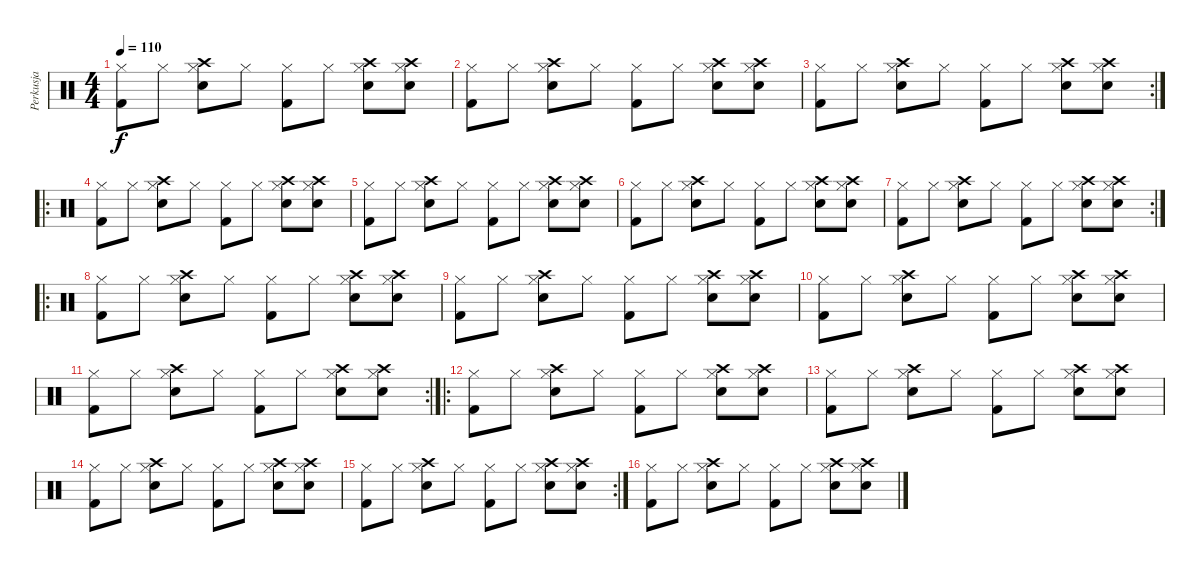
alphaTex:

\track ("Perkusja" "Perkusja") {instrument percussion}
\staff {score}
\articulation defaults
\ts (4 4)
\tempo 110
\clef neutral
\ks c
("Hi-Hat (closed)" "Kick (hit) 2").8{dy f} "Hi-Hat (closed)".8 ("Hi-Hat (closed)" "Electric Snare (hit)" "Crash high (hit)").8 "Hi-Hat (closed)".8 ("Hi-Hat (closed)" "Kick (hit) 2").8 "Hi-Hat (closed)".8 ("Hi-Hat (closed)" "Electric Snare (hit)" "Crash high (hit)").8 ("Hi-Hat (closed)" "Electric Snare (hit)" "Crash high (hit)").8 |
("Hi-Hat (closed)" "Kick (hit) 2").8 "Hi-Hat (closed)".8 ("Hi-Hat (closed)" "Electric Snare (hit)" "Crash high (hit)").8 "Hi-Hat (closed)".8 ("Hi-Hat (closed)" "Kick (hit) 2").8 "Hi-Hat (closed)".8 ("Hi-Hat (closed)" "Electric Snare (hit)" "Crash high (hit)").8 ("Hi-Hat (closed)" "Electric Snare (hit)" "Crash high (hit)").8 |
\rc 2
("Hi-Hat (closed)" "Kick (hit) 2").8 "Hi-Hat (closed)".8 ("Hi-Hat (closed)" "Electric Snare (hit)" "Crash high (hit)").8 "Hi-Hat (closed)".8 ("Hi-Hat (closed)" "Kick (hit) 2").8 "Hi-Hat (closed)".8 ("Hi-Hat (closed)" "Electric Snare (hit)" "Crash high (hit)").8 ("Hi-Hat (closed)" "Electric Snare (hit)" "Crash high (hit)").8 |
\ro
("Hi-Hat (closed)" "Kick (hit) 2").8 "Hi-Hat (closed)".8 ("Hi-Hat (closed)" "Electric Snare (hit)" "Crash high (hit)").8 "Hi-Hat (closed)".8 ("Hi-Hat (closed)" "Kick (hit) 2").8 "Hi-Hat (closed)".8 ("Hi-Hat (closed)" "Electric Snare (hit)" "Crash high (hit)").8 ("Hi-Hat (closed)" "Electric Snare (hit)" "Crash high (hit)").8 |
("Hi-Hat (closed)" "Kick (hit) 2").8 "Hi-Hat (closed)".8 ("Hi-Hat (closed)" "Electric Snare (hit)" "Crash high (hit)").8 "Hi-Hat (closed)".8 ("Hi-Hat (closed)" "Kick (hit) 2").8 "Hi-Hat (closed)".8 ("Hi-Hat (closed)" "Electric Snare (hit)" "Crash high (hit)").8 ("Hi-Hat (closed)" "Electric Snare (hit)" "Crash high (hit)").8 |
("Hi-Hat (closed)" "Kick (hit) 2").8 "Hi-Hat (closed)".8 ("Hi-Hat (closed)" "Electric Snare (hit)" "Crash high (hit)").8 "Hi-Hat (closed)".8 ("Hi-Hat (closed)" "Kick (hit) 2").8 "Hi-Hat (closed)".8 ("Hi-Hat (closed)" "Electric Snare (hit)" "Crash high (hit)").8 ("Hi-Hat (closed)" "Electric Snare (hit)" "Crash high (hit)").8 |
\rc 2
("Hi-Hat (closed)" "Kick (hit) 2").8 "Hi-Hat (closed)".8 ("Hi-Hat (closed)" "Electric Snare (hit)" "Crash high (hit)").8 "Hi-Hat (closed)".8 ("Hi-Hat (closed)" "Kick (hit) 2").8 "Hi-Hat (closed)".8 ("Hi-Hat (closed)" "Electric Snare (hit)" "Crash high (hit)").8 ("Hi-Hat (closed)" "Electric Snare (hit)" "Crash high (hit)").8 |
\ro
("Hi-Hat (closed)" "Kick (hit) 2").8 "Hi-Hat (closed)".8 ("Hi-Hat (closed)" "Electric Snare (hit)" "Crash high (hit)").8 "Hi-Hat (closed)".8 ("Hi-Hat (closed)" "Kick (hit) 2").8 "Hi-Hat (closed)".8 ("Hi-Hat (closed)" "Electric Snare (hit)" "Crash high (hit)").8 ("Hi-Hat (closed)" "Electric Snare (hit)" "Crash high (hit)").8 |
("Hi-Hat (closed)" "Kick (hit) 2").8 "Hi-Hat (closed)".8 ("Hi-Hat (closed)" "Electric Snare (hit)" "Crash high (hit)").8 "Hi-Hat (closed)".8 ("Hi-Hat (closed)" "Kick (hit) 2").8 "Hi-Hat (closed)".8 ("Hi-Hat (closed)" "Electric Snare (hit)" "Crash high (hit)").8 ("Hi-Hat (closed)" "Electric Snare (hit)" "Crash high (hit)").8 |
("Hi-Hat (closed)" "Kick (hit) 2").8 "Hi-Hat (closed)".8 ("Hi-Hat (closed)" "Electric Snare (hit)" "Crash high (hit)").8 "Hi-Hat (closed)".8 ("Hi-Hat (closed)" "Kick (hit) 2").8 "Hi-Hat (closed)".8 ("Hi-Hat (closed)" "Electric Snare (hit)" "Crash high (hit)").8 ("Hi-Hat (closed)" "Electric Snare (hit)" "Crash high (hit)").8 |
\rc 2
("Hi-Hat (closed)" "Kick (hit) 2").8 "Hi-Hat (closed)".8 ("Hi-Hat (closed)" "Electric Snare (hit)" "Crash high (hit)").8 "Hi-Hat (closed)".8 ("Hi-Hat (closed)" "Kick (hit) 2").8 "Hi-Hat (closed)".8 ("Hi-Hat (closed)" "Electric Snare (hit)" "Crash high (hit)").8 ("Hi-Hat (closed)" "Electric Snare (hit)" "Crash high (hit)").8 |
\ro
("Hi-Hat (closed)" "Kick (hit) 2").8 "Hi-Hat (closed)".8 ("Hi-Hat (closed)" "Electric Snare (hit)" "Crash high (hit)").8 "Hi-Hat (closed)".8 ("Hi-Hat (closed)" "Kick (hit) 2").8 "Hi-Hat (closed)".8 ("Hi-Hat (closed)" "Electric Snare (hit)" "Crash high (hit)").8 ("Hi-Hat (closed)" "Electric Snare (hit)" "Crash high (hit)").8 |
("Hi-Hat (closed)" "Kick (hit) 2").8 "Hi-Hat (closed)".8 ("Hi-Hat (closed)" "Electric Snare (hit)" "Crash high (hit)").8 "Hi-Hat (closed)".8 ("Hi-Hat (closed)" "Kick (hit) 2").8 "Hi-Hat (closed)".8 ("Hi-Hat (closed)" "Electric Snare (hit)" "Crash high (hit)").8 ("Hi-Hat (closed)" "Electric Snare (hit)" "Crash high (hit)").8 |
("Hi-Hat (closed)" "Kick (hit) 2").8 "Hi-Hat (closed)".8 ("Hi-Hat (closed)" "Electric Snare (hit)" "Crash high (hit)").8 "Hi-Hat (closed)".8 ("Hi-Hat (closed)" "Kick (hit) 2").8 "Hi-Hat (closed)".8 ("Hi-Hat (closed)" "Electric Snare (hit)" "Crash high (hit)").8 ("Hi-Hat (closed)" "Electric Snare (hit)" "Crash high (hit)").8 |
\rc 2
("Hi-Hat (closed)" "Kick (hit) 2").8 "Hi-Hat (closed)".8 ("Hi-Hat (closed)" "Electric Snare (hit)" "Crash high (hit)").8 "Hi-Hat (closed)".8 ("Hi-Hat (closed)" "Kick (hit) 2").8 "Hi-Hat (closed)".8 ("Hi-Hat (closed)" "Electric Snare (hit)" "Crash high (hit)").8 ("Hi-Hat (closed)" "Electric Snare (hit)" "Crash high (hit)").8 |
("Hi-Hat (closed)" "Kick (hit) 2").8 "Hi-Hat (closed)".8 ("Hi-Hat (closed)" "Electric Snare (hit)" "Crash high (hit)").8 "Hi-Hat (closed)".8 ("Hi-Hat (closed)" "Kick (hit) 2").8 "Hi-Hat (closed)".8 ("Hi-Hat (closed)" "Electric Snare (hit)" "Crash high (hit)").8 ("Hi-Hat (closed)" "Electric Snare (hit)" "Crash high (hit)").8
